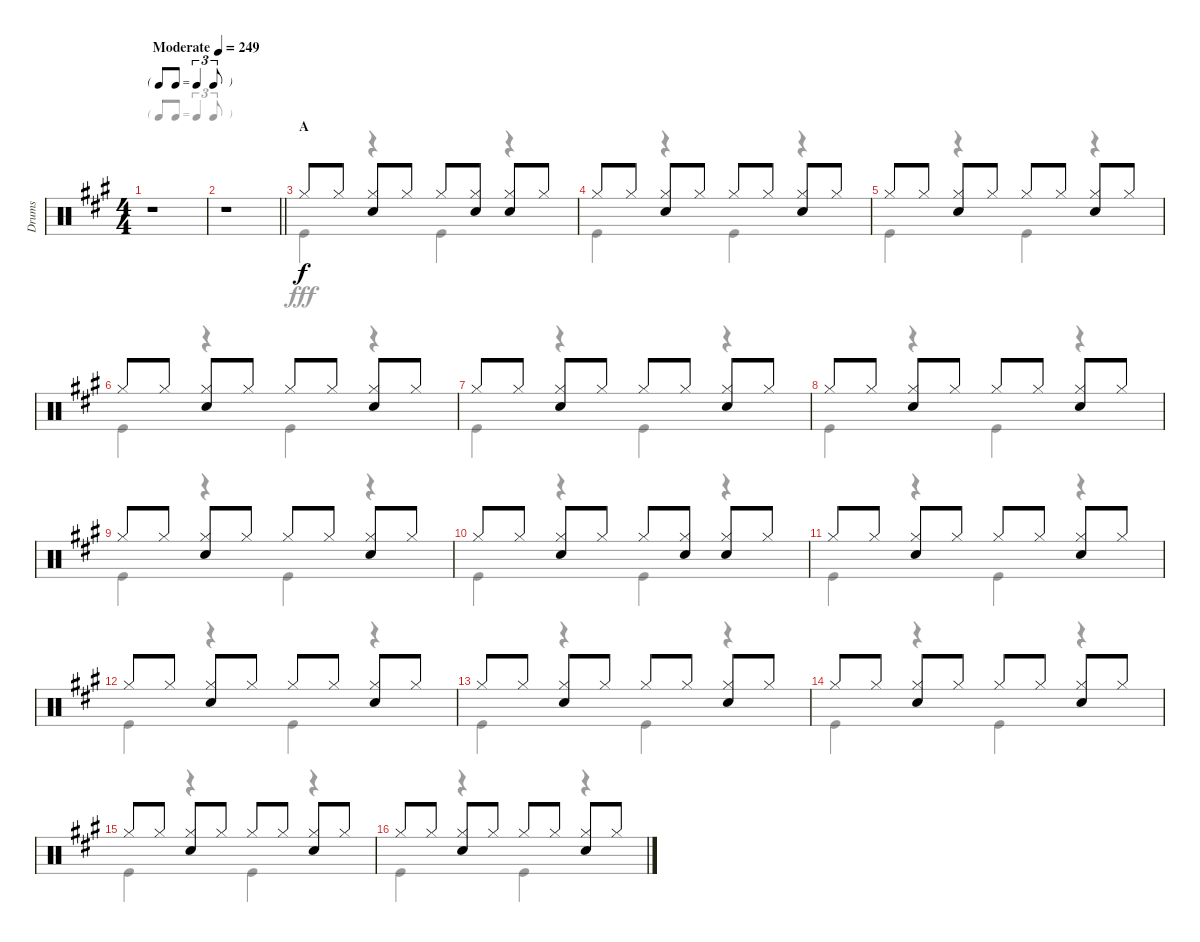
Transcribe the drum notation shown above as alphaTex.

\track ("Drums" "Drums") {instrument percussion}
\staff {score}
\articulation defaults
\voice
\ts (4 4)
\tf triplet8th
\tempo (249 "Moderate")
\clef neutral
\ks a
r.1{dy f} |
\barLineRight lightlight
r.1 |
\section ("" "A")
"Hi-Hat (closed)".8 "Hi-Hat (closed)".8 ("Hi-Hat (closed)" "Snare (hit) 2").8 "Hi-Hat (closed)".8 "Hi-Hat (closed)".8 ("Hi-Hat (closed)" "Snare (hit) 2").8 ("Hi-Hat (closed)" "Snare (hit) 2").8 "Hi-Hat (closed)".8 |
"Hi-Hat (closed)".8 "Hi-Hat (closed)".8 ("Hi-Hat (closed)" "Snare (hit) 2").8 "Hi-Hat (closed)".8 "Hi-Hat (closed)".8 "Hi-Hat (closed)".8 ("Hi-Hat (closed)" "Snare (hit) 2").8 "Hi-Hat (closed)".8 |
"Hi-Hat (closed)".8 "Hi-Hat (closed)".8 ("Hi-Hat (closed)" "Snare (hit) 2").8 "Hi-Hat (closed)".8 "Hi-Hat (closed)".8 "Hi-Hat (closed)".8 ("Hi-Hat (closed)" "Snare (hit) 2").8 "Hi-Hat (closed)".8 |
"Hi-Hat (closed)".8 "Hi-Hat (closed)".8 ("Hi-Hat (closed)" "Snare (hit) 2").8 "Hi-Hat (closed)".8 "Hi-Hat (closed)".8 "Hi-Hat (closed)".8 ("Hi-Hat (closed)" "Snare (hit) 2").8 "Hi-Hat (closed)".8 |
"Hi-Hat (closed)".8 "Hi-Hat (closed)".8 ("Hi-Hat (closed)" "Snare (hit) 2").8 "Hi-Hat (closed)".8 "Hi-Hat (closed)".8 "Hi-Hat (closed)".8 ("Hi-Hat (closed)" "Snare (hit) 2").8 "Hi-Hat (closed)".8 |
"Hi-Hat (closed)".8 "Hi-Hat (closed)".8 ("Hi-Hat (closed)" "Snare (hit) 2").8 "Hi-Hat (closed)".8 "Hi-Hat (closed)".8 "Hi-Hat (closed)".8 ("Hi-Hat (closed)" "Snare (hit) 2").8 "Hi-Hat (closed)".8 |
"Hi-Hat (closed)".8 "Hi-Hat (closed)".8 ("Hi-Hat (closed)" "Snare (hit) 2").8 "Hi-Hat (closed)".8 "Hi-Hat (closed)".8 "Hi-Hat (closed)".8 ("Hi-Hat (closed)" "Snare (hit) 2").8 "Hi-Hat (closed)".8 |
"Hi-Hat (closed)".8 "Hi-Hat (closed)".8 ("Hi-Hat (closed)" "Snare (hit) 2").8 "Hi-Hat (closed)".8 "Hi-Hat (closed)".8 ("Hi-Hat (closed)" "Snare (hit) 2").8 ("Hi-Hat (closed)" "Snare (hit) 2").8 "Hi-Hat (closed)".8 |
"Hi-Hat (closed)".8 "Hi-Hat (closed)".8 ("Hi-Hat (closed)" "Snare (hit) 2").8 "Hi-Hat (closed)".8 "Hi-Hat (closed)".8 "Hi-Hat (closed)".8 ("Hi-Hat (closed)" "Snare (hit) 2").8 "Hi-Hat (closed)".8 |
"Hi-Hat (closed)".8 "Hi-Hat (closed)".8 ("Hi-Hat (closed)" "Snare (hit) 2").8 "Hi-Hat (closed)".8 "Hi-Hat (closed)".8 "Hi-Hat (closed)".8 ("Hi-Hat (closed)" "Snare (hit) 2").8 "Hi-Hat (closed)".8 |
"Hi-Hat (closed)".8 "Hi-Hat (closed)".8 ("Hi-Hat (closed)" "Snare (hit) 2").8 "Hi-Hat (closed)".8 "Hi-Hat (closed)".8 "Hi-Hat (closed)".8 ("Hi-Hat (closed)" "Snare (hit) 2").8 "Hi-Hat (closed)".8 |
"Hi-Hat (closed)".8 "Hi-Hat (closed)".8 ("Hi-Hat (closed)" "Snare (hit) 2").8 "Hi-Hat (closed)".8 "Hi-Hat (closed)".8 "Hi-Hat (closed)".8 ("Hi-Hat (closed)" "Snare (hit) 2").8 "Hi-Hat (closed)".8 |
"Hi-Hat (closed)".8 "Hi-Hat (closed)".8 ("Hi-Hat (closed)" "Snare (hit) 2").8 "Hi-Hat (closed)".8 "Hi-Hat (closed)".8 "Hi-Hat (closed)".8 ("Hi-Hat (closed)" "Snare (hit) 2").8 "Hi-Hat (closed)".8 |
"Hi-Hat (closed)".8 "Hi-Hat (closed)".8 ("Hi-Hat (closed)" "Snare (hit) 2").8 "Hi-Hat (closed)".8 "Hi-Hat (closed)".8 "Hi-Hat (closed)".8 ("Hi-Hat (closed)" "Snare (hit) 2").8 "Hi-Hat (closed)".8
\voice
\clef neutral
\ottava regular
\simile none
\ks a
r.1{dy fff} |
\barLineRight lightlight
r.1 |
"Kick (hit)".4 r.4 "Kick (hit)".4 r.4 |
"Kick (hit)".4 r.4 "Kick (hit)".4 r.4 |
"Kick (hit)".4 r.4 "Kick (hit)".4 r.4 |
"Kick (hit)".4 r.4 "Kick (hit)".4 r.4 |
"Kick (hit)".4 r.4 "Kick (hit)".4 r.4 |
"Kick (hit)".4 r.4 "Kick (hit)".4 r.4 |
"Kick (hit)".4 r.4 "Kick (hit)".4 r.4 |
"Kick (hit)".4 r.4 "Kick (hit)".4 r.4 |
"Kick (hit)".4 r.4 "Kick (hit)".4 r.4 |
"Kick (hit)".4 r.4 "Kick (hit)".4 r.4 |
"Kick (hit)".4 r.4 "Kick (hit)".4 r.4 |
"Kick (hit)".4 r.4 "Kick (hit)".4 r.4 |
"Kick (hit)".4 r.4 "Kick (hit)".4 r.4 |
"Kick (hit)".4 r.4 "Kick (hit)".4 r.4
